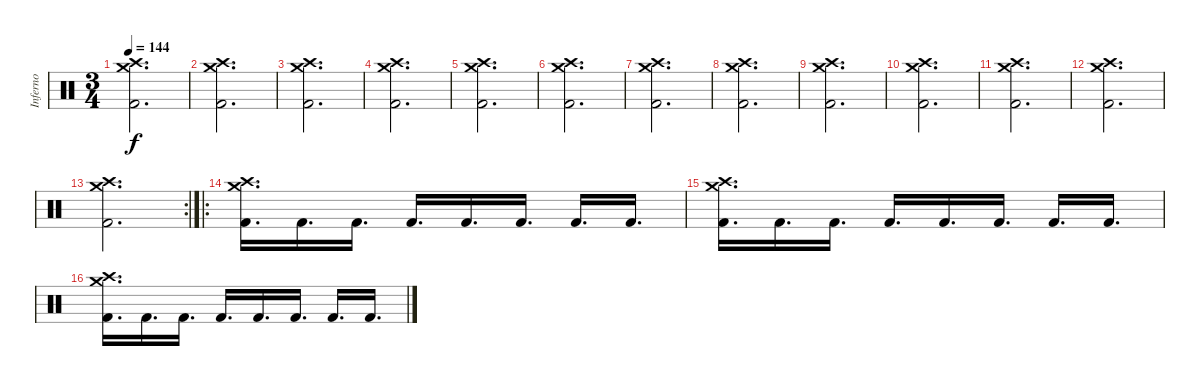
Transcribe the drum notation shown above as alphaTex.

\track ("Inferno" "Inferno") {instrument percussion}
\staff {score}
\articulation defaults
\ts (3 4)
\tempo 144
\clef neutral
\ks c
("Crash medium (hit)" "Crash high (hit)" "Kick (hit) 2").2{d dy f} |
("Crash medium (hit)" "Crash high (hit)" "Kick (hit) 2").2{d} |
("Crash medium (hit)" "Crash high (hit)" "Kick (hit) 2").2{d} |
("Crash medium (hit)" "Crash high (hit)" "Kick (hit) 2").2{d} |
("Crash medium (hit)" "Crash high (hit)" "Kick (hit) 2").2{d} |
("Crash medium (hit)" "Crash high (hit)" "Kick (hit) 2").2{d} |
("Crash medium (hit)" "Crash high (hit)" "Kick (hit) 2").2{d} |
("Crash medium (hit)" "Crash high (hit)" "Kick (hit) 2").2{d} |
("Crash medium (hit)" "Crash high (hit)" "Kick (hit) 2").2{d} |
("Crash medium (hit)" "Crash high (hit)" "Kick (hit) 2").2{d} |
("Crash medium (hit)" "Crash high (hit)" "Kick (hit) 2").2{d} |
("Crash medium (hit)" "Crash high (hit)" "Kick (hit) 2").2{d} |
\rc 2
("Crash medium (hit)" "Crash high (hit)" "Kick (hit) 2").2{d} |
\ro
("Crash medium (hit)" "Crash high (hit)" "Kick (hit) 2").16{d} "Kick (hit) 2".16{d} "Kick (hit) 2".16{d} "Kick (hit) 2".16{d} "Kick (hit) 2".16{d} "Kick (hit) 2".16{d} "Kick (hit) 2".16{d} "Kick (hit) 2".16{d} |
("Crash medium (hit)" "Crash high (hit)" "Kick (hit) 2").16{d} "Kick (hit) 2".16{d} "Kick (hit) 2".16{d} "Kick (hit) 2".16{d} "Kick (hit) 2".16{d} "Kick (hit) 2".16{d} "Kick (hit) 2".16{d} "Kick (hit) 2".16{d} |
("Crash medium (hit)" "Crash high (hit)" "Kick (hit) 2").16{d} "Kick (hit) 2".16{d} "Kick (hit) 2".16{d} "Kick (hit) 2".16{d} "Kick (hit) 2".16{d} "Kick (hit) 2".16{d} "Kick (hit) 2".16{d} "Kick (hit) 2".16{d}
